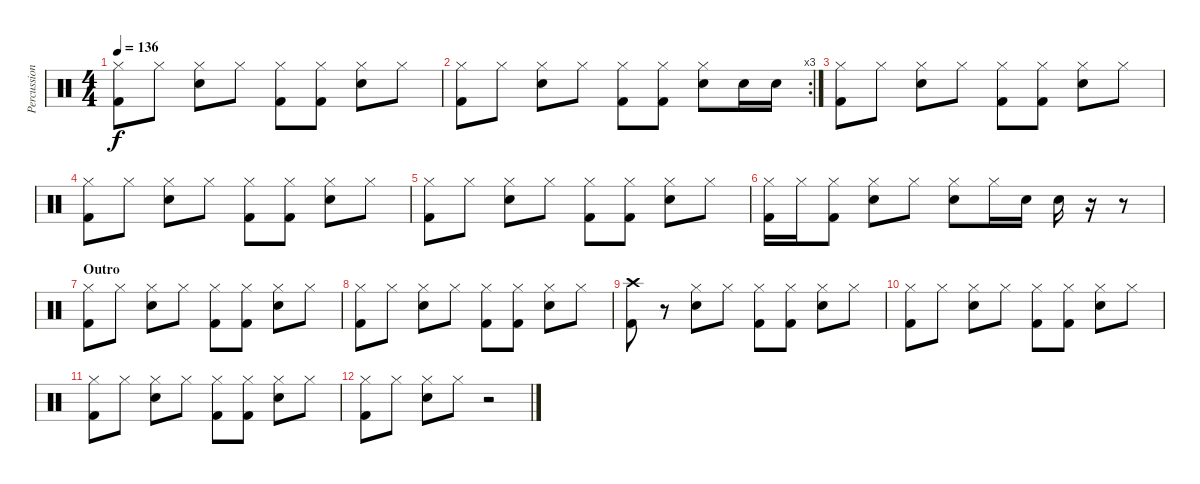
\track ("Percussions" "Percussion") {instrument percussion}
\staff {score}
\articulation defaults
\ts (4 4)
\tempo 136
\clef neutral
\ks c
("Hi-Hat (closed)" "Kick (hit) 2").8{dy f} "Hi-Hat (closed)".8 ("Hi-Hat (closed)" "Electric Snare (hit)").8 "Hi-Hat (closed)".8 ("Hi-Hat (closed)" "Kick (hit) 2").8 ("Hi-Hat (closed)" "Kick (hit) 2").8 ("Hi-Hat (closed)" "Electric Snare (hit)").8 "Hi-Hat (closed)".8 |
\rc 3
("Hi-Hat (closed)" "Kick (hit) 2").8 "Hi-Hat (closed)".8 ("Hi-Hat (closed)" "Electric Snare (hit)").8 "Hi-Hat (closed)".8 ("Hi-Hat (closed)" "Kick (hit) 2").8 ("Hi-Hat (closed)" "Kick (hit) 2").8 ("Hi-Hat (closed)" "Electric Snare (hit)").8 "Electric Snare (hit)".16 "Electric Snare (hit)".16 |
("Hi-Hat (closed)" "Kick (hit) 2").8 "Hi-Hat (closed)".8 ("Hi-Hat (closed)" "Electric Snare (hit)").8 "Hi-Hat (closed)".8 ("Hi-Hat (closed)" "Kick (hit) 2").8 ("Hi-Hat (closed)" "Kick (hit) 2").8 ("Hi-Hat (closed)" "Electric Snare (hit)").8 "Hi-Hat (closed)".8 |
("Hi-Hat (closed)" "Kick (hit) 2").8 "Hi-Hat (closed)".8 ("Hi-Hat (closed)" "Electric Snare (hit)").8 "Hi-Hat (closed)".8 ("Hi-Hat (closed)" "Kick (hit) 2").8 ("Hi-Hat (closed)" "Kick (hit) 2").8 ("Hi-Hat (closed)" "Electric Snare (hit)").8 "Hi-Hat (closed)".8 |
("Hi-Hat (closed)" "Kick (hit) 2").8 "Hi-Hat (closed)".8 ("Hi-Hat (closed)" "Electric Snare (hit)").8 "Hi-Hat (closed)".8 ("Hi-Hat (closed)" "Kick (hit) 2").8 ("Hi-Hat (closed)" "Kick (hit) 2").8 ("Hi-Hat (closed)" "Electric Snare (hit)").8 "Hi-Hat (closed)".8 |
("Hi-Hat (closed)" "Kick (hit) 2").16 "Hi-Hat (closed)".16 ("Hi-Hat (closed)" "Kick (hit) 2").8 ("Hi-Hat (closed)" "Electric Snare (hit)").8 "Hi-Hat (closed)".8 ("Hi-Hat (closed)" "Electric Snare (hit)").8 "Hi-Hat (closed)".16 "Electric Snare (hit)".16 "Snare (hit) 2".16 r.16 r.8 |
\section ("" "Outro")
("Hi-Hat (closed)" "Kick (hit) 2").8 "Hi-Hat (closed)".8 ("Hi-Hat (closed)" "Electric Snare (hit)").8 "Hi-Hat (closed)".8 ("Hi-Hat (closed)" "Kick (hit) 2").8 ("Hi-Hat (closed)" "Kick (hit) 2").8 ("Hi-Hat (closed)" "Electric Snare (hit)").8 "Hi-Hat (closed)".8 |
("Hi-Hat (closed)" "Kick (hit) 2").8 "Hi-Hat (closed)".8 ("Hi-Hat (closed)" "Electric Snare (hit)").8 "Hi-Hat (closed)".8 ("Hi-Hat (closed)" "Kick (hit) 2").8 ("Hi-Hat (closed)" "Kick (hit) 2").8 ("Hi-Hat (closed)" "Electric Snare (hit)").8 "Hi-Hat (closed)".8 |
("Crash high (hit)" "Kick (hit) 2").8 r.8 ("Hi-Hat (closed)" "Electric Snare (hit)").8 "Hi-Hat (closed)".8 ("Hi-Hat (closed)" "Kick (hit) 2").8 ("Hi-Hat (closed)" "Kick (hit) 2").8 ("Hi-Hat (closed)" "Electric Snare (hit)").8 "Hi-Hat (closed)".8 |
("Hi-Hat (closed)" "Kick (hit) 2").8 "Hi-Hat (closed)".8 ("Hi-Hat (closed)" "Electric Snare (hit)").8 "Hi-Hat (closed)".8 ("Hi-Hat (closed)" "Kick (hit) 2").8 ("Hi-Hat (closed)" "Kick (hit) 2").8 ("Hi-Hat (closed)" "Electric Snare (hit)").8 "Hi-Hat (closed)".8 |
("Hi-Hat (closed)" "Kick (hit) 2").8 "Hi-Hat (closed)".8 ("Hi-Hat (closed)" "Electric Snare (hit)").8 "Hi-Hat (closed)".8 ("Hi-Hat (closed)" "Kick (hit) 2").8 ("Hi-Hat (closed)" "Kick (hit) 2").8 ("Hi-Hat (closed)" "Electric Snare (hit)").8 "Hi-Hat (closed)".8 |
("Hi-Hat (closed)" "Kick (hit) 2").8 "Hi-Hat (closed)".8 ("Hi-Hat (closed)" "Electric Snare (hit)").8 "Hi-Hat (closed)".8 r.2
